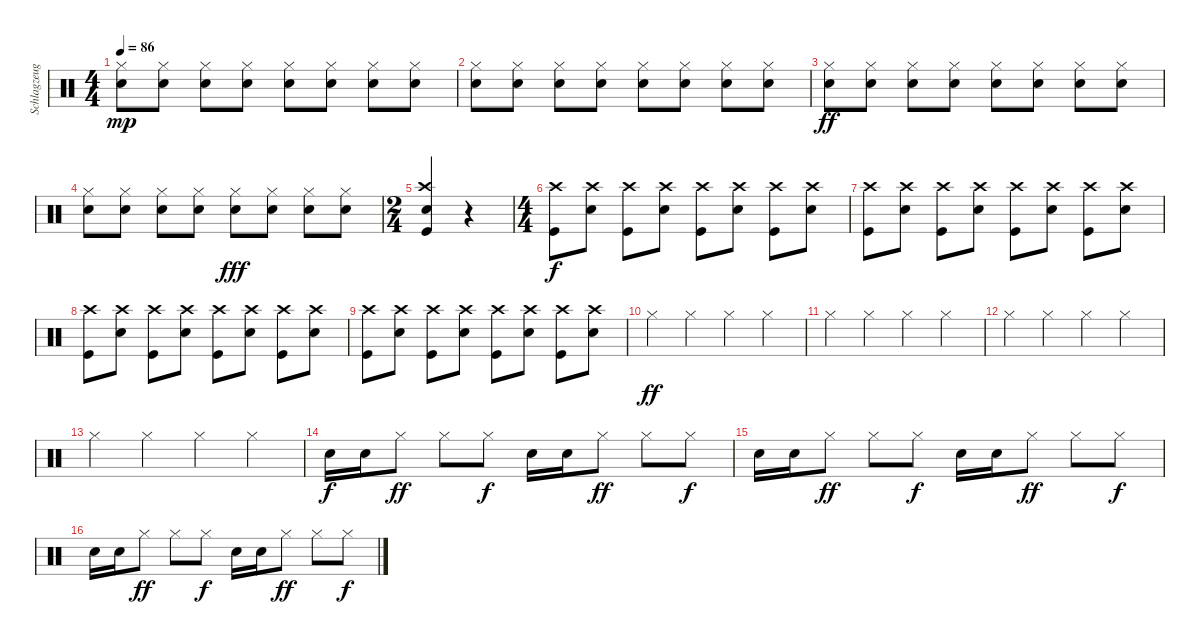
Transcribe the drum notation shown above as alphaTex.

\track ("Schlagzeug" "Schlagzeug") {instrument percussion}
\staff {score}
\articulation defaults
\ts (4 4)
\tempo 86
\clef neutral
\ks c
("Hi-Hat (closed)" "Snare (hit) 2").8{dy mp} ("Hi-Hat (closed)" "Snare (hit) 2").8 ("Hi-Hat (closed)" "Snare (hit) 2").8 ("Hi-Hat (closed)" "Snare (hit) 2").8 ("Hi-Hat (closed)" "Snare (hit) 2").8 ("Hi-Hat (closed)" "Snare (hit) 2").8 ("Hi-Hat (closed)" "Snare (hit) 2").8 ("Hi-Hat (closed)" "Snare (hit) 2").8 |
("Hi-Hat (closed)" "Snare (hit) 2").8 ("Hi-Hat (closed)" "Snare (hit) 2").8 ("Hi-Hat (closed)" "Snare (hit) 2").8 ("Hi-Hat (closed)" "Snare (hit) 2").8 ("Hi-Hat (closed)" "Snare (hit) 2").8 ("Hi-Hat (closed)" "Snare (hit) 2").8 ("Hi-Hat (closed)" "Snare (hit) 2").8 ("Hi-Hat (closed)" "Snare (hit) 2").8 |
("Hi-Hat (closed)" "Snare (hit) 2").8{dy ff} ("Hi-Hat (closed)" "Snare (hit) 2").8 ("Hi-Hat (closed)" "Snare (hit) 2").8 ("Hi-Hat (closed)" "Snare (hit) 2").8 ("Hi-Hat (closed)" "Snare (hit) 2").8 ("Hi-Hat (closed)" "Snare (hit) 2").8 ("Hi-Hat (closed)" "Snare (hit) 2").8 ("Hi-Hat (closed)" "Snare (hit) 2").8 |
("Hi-Hat (closed)" "Snare (hit) 2").8 ("Hi-Hat (closed)" "Snare (hit) 2").8 ("Hi-Hat (closed)" "Snare (hit) 2").8 ("Hi-Hat (closed)" "Snare (hit) 2").8 ("Hi-Hat (closed)" "Snare (hit) 2").8{dy fff} ("Hi-Hat (closed)" "Snare (hit) 2").8 ("Hi-Hat (closed)" "Snare (hit) 2").8 ("Hi-Hat (closed)" "Snare (hit) 2").8 |
\ts (2 4)
("Crash high (hit)" "Snare (hit) 2" "Kick (hit)").4 r.4 |
\ts (4 4)
("Crash high (hit)" "Kick (hit)").8{dy f} ("Crash high (hit)" "Snare (hit) 2").8 ("Crash high (hit)" "Kick (hit)").8 ("Crash high (hit)" "Snare (hit) 2").8 ("Crash high (hit)" "Kick (hit)").8 ("Crash high (hit)" "Snare (hit) 2").8 ("Crash high (hit)" "Kick (hit)").8 ("Crash high (hit)" "Snare (hit) 2").8 |
("Crash high (hit)" "Kick (hit)").8 ("Crash high (hit)" "Snare (hit) 2").8 ("Crash high (hit)" "Kick (hit)").8 ("Crash high (hit)" "Snare (hit) 2").8 ("Crash high (hit)" "Kick (hit)").8 ("Crash high (hit)" "Snare (hit) 2").8 ("Crash high (hit)" "Kick (hit)").8 ("Crash high (hit)" "Snare (hit) 2").8 |
("Crash high (hit)" "Kick (hit)").8 ("Crash high (hit)" "Snare (hit) 2").8 ("Crash high (hit)" "Kick (hit)").8 ("Crash high (hit)" "Snare (hit) 2").8 ("Crash high (hit)" "Kick (hit)").8 ("Crash high (hit)" "Snare (hit) 2").8 ("Crash high (hit)" "Kick (hit)").8 ("Crash high (hit)" "Snare (hit) 2").8 |
("Crash high (hit)" "Kick (hit)").8 ("Crash high (hit)" "Snare (hit) 2").8 ("Crash high (hit)" "Kick (hit)").8 ("Crash high (hit)" "Snare (hit) 2").8 ("Crash high (hit)" "Kick (hit)").8 ("Crash high (hit)" "Snare (hit) 2").8 ("Crash high (hit)" "Kick (hit)").8 ("Crash high (hit)" "Snare (hit) 2").8 |
"Hi-Hat (closed)".4{dy ff} "Hi-Hat (closed)".4 "Hi-Hat (closed)".4 "Hi-Hat (closed)".4 |
"Hi-Hat (closed)".4 "Hi-Hat (closed)".4 "Hi-Hat (closed)".4 "Hi-Hat (closed)".4 |
"Hi-Hat (closed)".4 "Hi-Hat (closed)".4 "Hi-Hat (closed)".4 "Hi-Hat (closed)".4 |
"Hi-Hat (closed)".4 "Hi-Hat (closed)".4 "Hi-Hat (closed)".4 "Hi-Hat (closed)".4 |
"Snare (hit) 2".16{dy f} "Snare (hit) 2".16 "Hi-Hat (closed)".8{dy ff} "Hi-Hat (closed)".8 "Hi-Hat (closed)".8{dy f} "Snare (hit) 2".16 "Snare (hit) 2".16 "Hi-Hat (closed)".8{dy ff} "Hi-Hat (closed)".8 "Hi-Hat (closed)".8{dy f} |
"Snare (hit) 2".16 "Snare (hit) 2".16 "Hi-Hat (closed)".8{dy ff} "Hi-Hat (closed)".8 "Hi-Hat (closed)".8{dy f} "Snare (hit) 2".16 "Snare (hit) 2".16 "Hi-Hat (closed)".8{dy ff} "Hi-Hat (closed)".8 "Hi-Hat (closed)".8{dy f} |
"Snare (hit) 2".16 "Snare (hit) 2".16 "Hi-Hat (closed)".8{dy ff} "Hi-Hat (closed)".8 "Hi-Hat (closed)".8{dy f} "Snare (hit) 2".16 "Snare (hit) 2".16 "Hi-Hat (closed)".8{dy ff} "Hi-Hat (closed)".8 "Hi-Hat (closed)".8{dy f}
